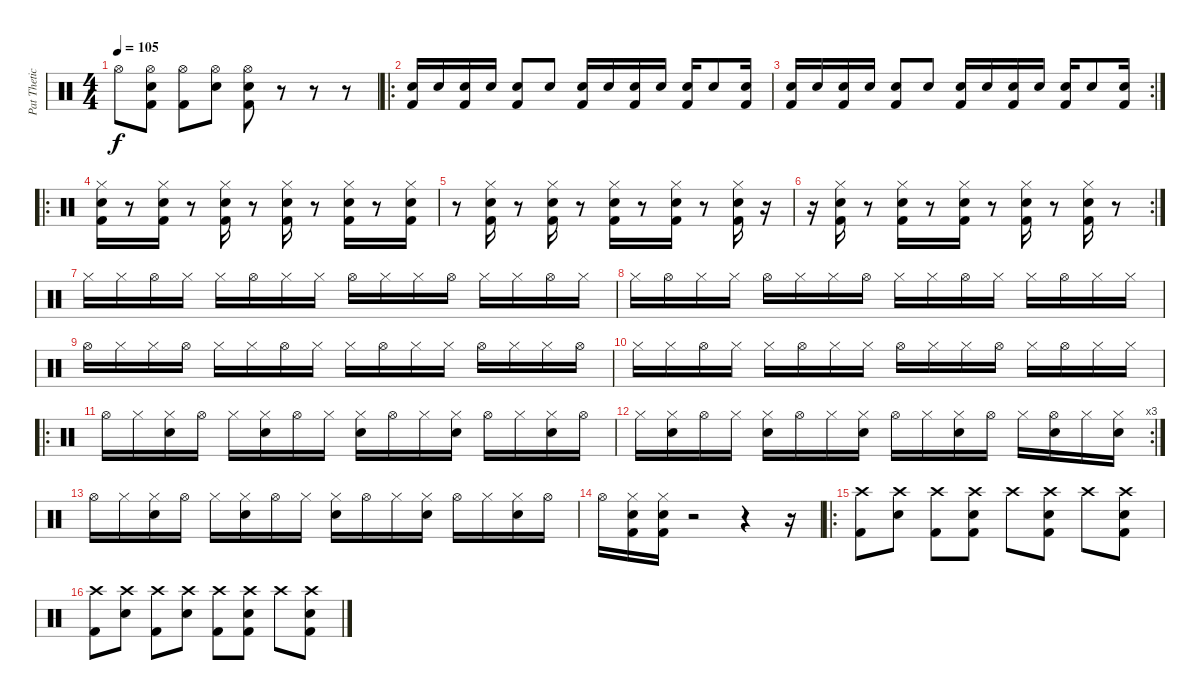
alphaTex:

\track ("Pat Thetic" "Pat Thetic") {instrument percussion}
\staff {score}
\articulation defaults
\ts (4 4)
\tempo 105
\clef neutral
\ks c "Hi-Hat (open)".8{dy f}
("Hi-Hat (open)" "Snare (hit) 2" "Kick (hit) 2").8 ("Hi-Hat (open)" "Kick (hit) 2").8 ("Hi-Hat (open)" "Snare (hit) 2").8 ("Hi-Hat (open)" "Snare (hit) 2" "Kick (hit) 2").8 r.8 r.8 r.8 |
\ro
("Snare (hit) 2" "Kick (hit) 2").16 "Snare (hit) 2".16 ("Snare (hit) 2" "Kick (hit) 2").16 "Snare (hit) 2".16 ("Snare (hit) 2" "Kick (hit) 2").8 "Snare (hit) 2".8 ("Snare (hit) 2" "Kick (hit) 2").16 "Snare (hit) 2".16 ("Snare (hit) 2" "Kick (hit) 2").16 "Snare (hit) 2".16 ("Snare (hit) 2" "Kick (hit) 2").16 "Snare (hit) 2".8 ("Snare (hit) 2" "Kick (hit) 2").16 |
\rc 2
("Snare (hit) 2" "Kick (hit) 2").16 "Snare (hit) 2".16 ("Snare (hit) 2" "Kick (hit) 2").16 "Snare (hit) 2".16 ("Snare (hit) 2" "Kick (hit) 2").8 "Snare (hit) 2".8 ("Snare (hit) 2" "Kick (hit) 2").16 "Snare (hit) 2".16 ("Snare (hit) 2" "Kick (hit) 2").16 "Snare (hit) 2".16 ("Snare (hit) 2" "Kick (hit) 2").16 "Snare (hit) 2".8 ("Snare (hit) 2" "Kick (hit) 2").16 |
\ro
("Hi-Hat (closed)" "Snare (hit) 2" "Kick (hit) 2").16 r.8 ("Hi-Hat (closed)" "Snare (hit) 2" "Kick (hit) 2").16 r.8 ("Hi-Hat (closed)" "Snare (hit) 2" "Kick (hit) 2").16 r.8 ("Hi-Hat (closed)" "Snare (hit) 2" "Kick (hit) 2").16 r.8 ("Hi-Hat (closed)" "Snare (hit) 2" "Kick (hit) 2").16 r.8 ("Hi-Hat (closed)" "Snare (hit) 2" "Kick (hit) 2").16 |
r.8 ("Hi-Hat (closed)" "Snare (hit) 2" "Kick (hit) 2").16 r.8 ("Hi-Hat (closed)" "Snare (hit) 2" "Kick (hit) 2").16 r.8 ("Hi-Hat (closed)" "Snare (hit) 2" "Kick (hit) 2").16 r.8 ("Hi-Hat (closed)" "Snare (hit) 2" "Kick (hit) 2").16 r.8 ("Hi-Hat (closed)" "Snare (hit) 2" "Kick (hit) 2").16 r.16 |
\rc 2
r.16 ("Hi-Hat (closed)" "Snare (hit) 2" "Kick (hit) 2").16 r.8 ("Hi-Hat (closed)" "Snare (hit) 2" "Kick (hit) 2").16 r.8 ("Hi-Hat (closed)" "Snare (hit) 2" "Kick (hit) 2").16 r.8 ("Hi-Hat (closed)" "Snare (hit) 2" "Kick (hit) 2").16 r.8 ("Hi-Hat (closed)" "Snare (hit) 2" "Kick (hit) 2").16 r.8 |
"Hi-Hat (closed)".16 "Hi-Hat (closed)".16 "Hi-Hat (open)".16 "Hi-Hat (closed)".16 "Hi-Hat (closed)".16 "Hi-Hat (open)".16 "Hi-Hat (closed)".16 "Hi-Hat (closed)".16 "Hi-Hat (open)".16 "Hi-Hat (closed)".16 "Hi-Hat (closed)".16 "Hi-Hat (open)".16 "Hi-Hat (closed)".16 "Hi-Hat (closed)".16 "Hi-Hat (open)".16 "Hi-Hat (closed)".16 |
"Hi-Hat (closed)".16 "Hi-Hat (open)".16 "Hi-Hat (closed)".16 "Hi-Hat (closed)".16 "Hi-Hat (open)".16 "Hi-Hat (closed)".16 "Hi-Hat (closed)".16 "Hi-Hat (open)".16 "Hi-Hat (closed)".16 "Hi-Hat (closed)".16 "Hi-Hat (open)".16 "Hi-Hat (closed)".16 "Hi-Hat (closed)".16 "Hi-Hat (open)".16 "Hi-Hat (closed)".16 "Hi-Hat (closed)".16 |
"Hi-Hat (open)".16 "Hi-Hat (closed)".16 "Hi-Hat (closed)".16 "Hi-Hat (open)".16 "Hi-Hat (closed)".16 "Hi-Hat (closed)".16 "Hi-Hat (open)".16 "Hi-Hat (closed)".16 "Hi-Hat (closed)".16 "Hi-Hat (open)".16 "Hi-Hat (closed)".16 "Hi-Hat (closed)".16 "Hi-Hat (open)".16 "Hi-Hat (closed)".16 "Hi-Hat (closed)".16 "Hi-Hat (open)".16 |
"Hi-Hat (closed)".16 "Hi-Hat (closed)".16 "Hi-Hat (open)".16 "Hi-Hat (closed)".16 "Hi-Hat (closed)".16 "Hi-Hat (open)".16 "Hi-Hat (closed)".16 "Hi-Hat (closed)".16 "Hi-Hat (open)".16 "Hi-Hat (closed)".16 "Hi-Hat (closed)".16 "Hi-Hat (open)".16 "Hi-Hat (closed)".16 "Hi-Hat (open)".16 "Hi-Hat (closed)".16 "Hi-Hat (closed)".16 |
\ro "Hi-Hat (open)".16 "Hi-Hat (closed)".16
("Hi-Hat (closed)" "Snare (hit) 2").16 "Hi-Hat (open)".16 "Hi-Hat (closed)".16 ("Hi-Hat (closed)" "Snare (hit) 2").16 "Hi-Hat (open)".16 "Hi-Hat (closed)".16 ("Hi-Hat (closed)" "Snare (hit) 2").16 "Hi-Hat (open)".16 "Hi-Hat (closed)".16 ("Hi-Hat (closed)" "Snare (hit) 2").16 "Hi-Hat (open)".16 "Hi-Hat (closed)".16 ("Hi-Hat (closed)" "Snare (hit) 2").16 "Hi-Hat (open)".16 |
\rc 3 "Hi-Hat (closed)".16
("Hi-Hat (closed)" "Snare (hit) 2").16 "Hi-Hat (open)".16 "Hi-Hat (closed)".16 ("Hi-Hat (closed)" "Snare (hit) 2").16 "Hi-Hat (open)".16 "Hi-Hat (closed)".16 ("Hi-Hat (closed)" "Snare (hit) 2").16 "Hi-Hat (open)".16 "Hi-Hat (closed)".16 ("Hi-Hat (closed)" "Snare (hit) 2").16 "Hi-Hat (open)".16 "Hi-Hat (closed)".16 ("Hi-Hat (open)" "Snare (hit) 2").16 "Hi-Hat (closed)".16 ("Hi-Hat (closed)" "Snare (hit) 2").16 |
"Hi-Hat (open)".16 "Hi-Hat (closed)".16 ("Hi-Hat (closed)" "Snare (hit) 2").16 "Hi-Hat (open)".16 "Hi-Hat (closed)".16 ("Hi-Hat (closed)" "Snare (hit) 2").16 "Hi-Hat (open)".16 "Hi-Hat (closed)".16 ("Hi-Hat (closed)" "Snare (hit) 2").16 "Hi-Hat (open)".16 "Hi-Hat (closed)".16 ("Hi-Hat (closed)" "Snare (hit) 2").16 "Hi-Hat (open)".16 "Hi-Hat (closed)".16 ("Hi-Hat (closed)" "Snare (hit) 2").16 "Hi-Hat (open)".16 |
"Hi-Hat (open)".16 ("Hi-Hat (closed)" "Snare (hit) 2" "Kick (hit) 2").16 ("Hi-Hat (closed)" "Snare (hit) 2" "Kick (hit) 2").16 r.2 r.4 r.16 |
\ro
("Crash high (hit)" "Kick (hit) 2").8 ("Crash high (hit)" "Snare (hit) 2").8 ("Crash high (hit)" "Kick (hit) 2").8 ("Crash high (hit)" "Snare (hit) 2" "Kick (hit) 2").8 "Crash high (hit)".8 ("Crash high (hit)" "Snare (hit) 2" "Kick (hit) 2").8 "Crash high (hit)".8 ("Crash high (hit)" "Snare (hit) 2" "Kick (hit) 2").8 |
("Crash high (hit)" "Kick (hit) 2").8 ("Crash high (hit)" "Snare (hit) 2").8 ("Crash high (hit)" "Kick (hit) 2").8 ("Crash high (hit)" "Snare (hit) 2").8 ("Crash high (hit)" "Kick (hit) 2").8 ("Crash high (hit)" "Snare (hit) 2" "Kick (hit) 2").8 "Crash high (hit)".8 ("Crash high (hit)" "Snare (hit) 2" "Kick (hit) 2").8
